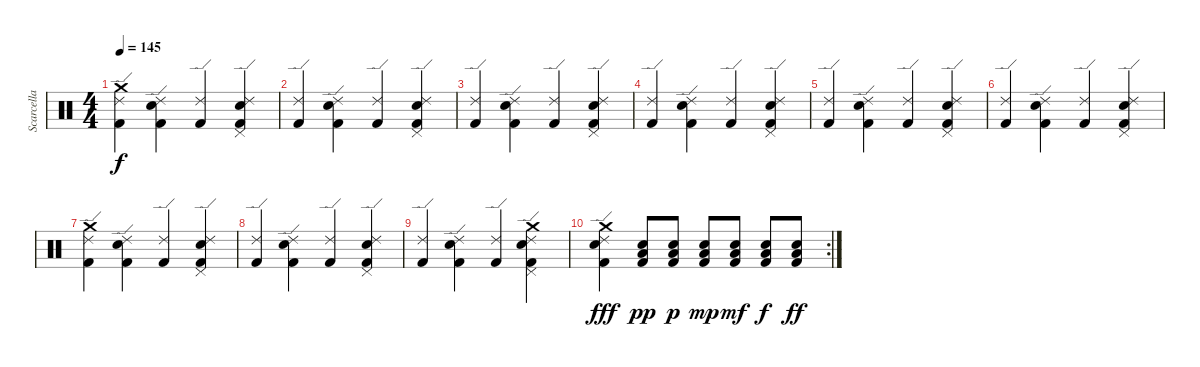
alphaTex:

\track ("Scarcella" "Scarcella") {instrument percussion}
\staff {score}
\articulation defaults
\ts (4 4)
\tempo 145
\clef neutral
\ks c
("Crash medium (hit)" "Ride (edge) 2" "Kick (hit) 2").4{dy f} ("Ride (edge) 2" "Snare (hit) 2" "Kick (hit) 2").4 ("Ride (edge) 2" "Kick (hit) 2").4 ("Pedal Hi-Hat (hit)" "Ride (edge) 2" "Snare (hit) 2" "Kick (hit) 2").4 |
("Ride (edge) 2" "Kick (hit) 2").4 ("Ride (edge) 2" "Snare (hit) 2" "Kick (hit) 2").4 ("Ride (edge) 2" "Kick (hit) 2").4 ("Pedal Hi-Hat (hit)" "Ride (edge) 2" "Snare (hit) 2" "Kick (hit) 2").4 |
("Ride (edge) 2" "Kick (hit) 2").4 ("Ride (edge) 2" "Snare (hit) 2" "Kick (hit) 2").4 ("Ride (edge) 2" "Kick (hit) 2").4 ("Pedal Hi-Hat (hit)" "Ride (edge) 2" "Snare (hit) 2" "Kick (hit) 2").4 |
("Ride (edge) 2" "Kick (hit) 2").4 ("Ride (edge) 2" "Snare (hit) 2" "Kick (hit) 2").4 ("Ride (edge) 2" "Kick (hit) 2").4 ("Pedal Hi-Hat (hit)" "Ride (edge) 2" "Snare (hit) 2" "Kick (hit) 2").4 |
("Ride (edge) 2" "Kick (hit) 2").4 ("Ride (edge) 2" "Snare (hit) 2" "Kick (hit) 2").4 ("Ride (edge) 2" "Kick (hit) 2").4 ("Pedal Hi-Hat (hit)" "Ride (edge) 2" "Snare (hit) 2" "Kick (hit) 2").4 |
("Ride (edge) 2" "Kick (hit) 2").4 ("Ride (edge) 2" "Snare (hit) 2" "Kick (hit) 2").4 ("Ride (edge) 2" "Kick (hit) 2").4 ("Pedal Hi-Hat (hit)" "Ride (edge) 2" "Snare (hit) 2" "Kick (hit) 2").4 |
("Crash medium (hit)" "Ride (edge) 2" "Kick (hit) 2").4 ("Ride (edge) 2" "Snare (hit) 2" "Kick (hit) 2").4 ("Ride (edge) 2" "Kick (hit) 2").4 ("Pedal Hi-Hat (hit)" "Ride (edge) 2" "Snare (hit) 2" "Kick (hit) 2").4 |
("Ride (edge) 2" "Kick (hit) 2").4 ("Ride (edge) 2" "Snare (hit) 2" "Kick (hit) 2").4 ("Ride (edge) 2" "Kick (hit) 2").4 ("Pedal Hi-Hat (hit)" "Ride (edge) 2" "Snare (hit) 2" "Kick (hit) 2").4 |
("Ride (edge) 2" "Kick (hit) 2").4 ("Ride (edge) 2" "Snare (hit) 2" "Kick (hit) 2").4 ("Ride (edge) 2" "Kick (hit) 2").4 ("Pedal Hi-Hat (hit)" "Ride (edge) 2" "Snare (hit) 2" "Crash medium (hit)" "Kick (hit) 2").4 |
\rc 2
("Snare (hit) 2" "Ride (edge) 2" "Crash medium (hit)" "Kick (hit) 2").4{dy fff} ("Kick (hit) 2" "Low Floor Tom (hit)" "Snare (hit) 2").8{dy pp} ("Kick (hit) 2" "Low Floor Tom (hit)" "Snare (hit) 2").8{dy p} ("Kick (hit) 2" "Low Floor Tom (hit)" "Snare (hit) 2").8{dy mp} ("Kick (hit) 2" "Low Floor Tom (hit)" "Snare (hit) 2").8{dy mf} ("Kick (hit) 2" "Low Floor Tom (hit)" "Snare (hit) 2").8{dy f} ("Kick (hit) 2" "Low Floor Tom (hit)" "Snare (hit) 2").8{dy ff}
